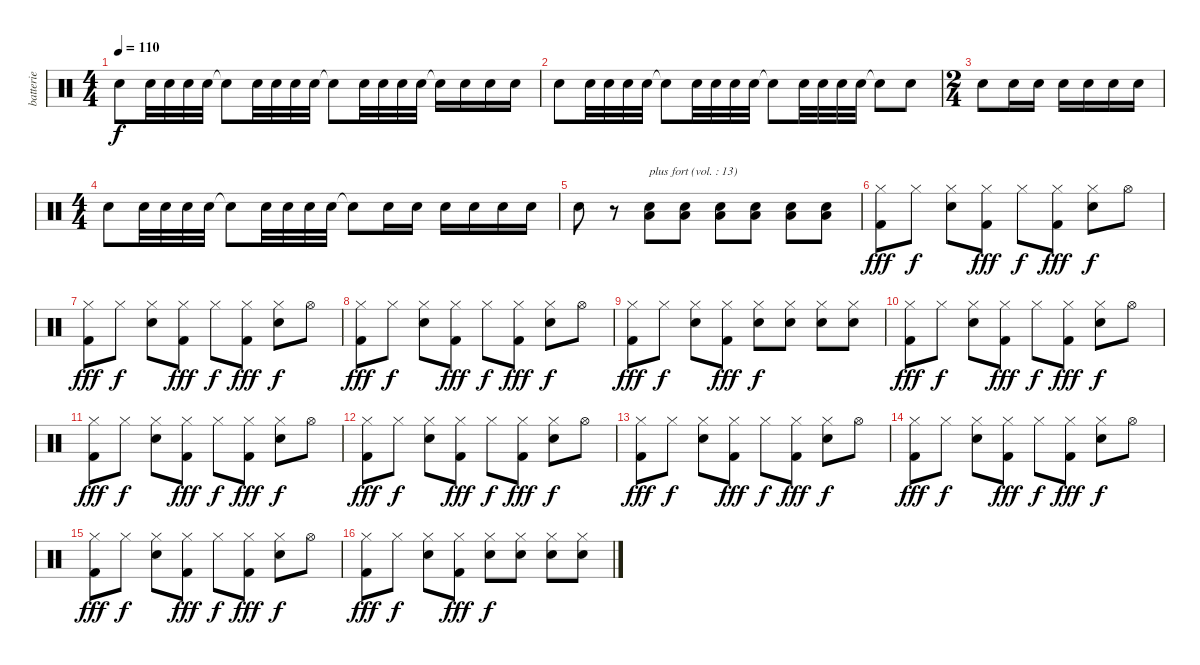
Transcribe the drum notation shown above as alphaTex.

\track ("batterie" "batterie") {instrument percussion}
\staff {score}
\articulation defaults
\ts (4 4)
\tempo 110
\clef neutral
\ks c "Electric Snare (hit)".8{dy f} "Electric Snare (hit)".32 "Electric Snare (hit)".32 "Electric Snare (hit)".32 "Electric Snare (hit)".32 "Electric Snare (hit)"{t}.8 "Electric Snare (hit)".32 "Electric Snare (hit)".32 "Electric Snare (hit)".32 "Electric Snare (hit)".32 "Snare (hit)"{t}.8 "Electric Snare (hit)".32 "Electric Snare (hit)".32 "Electric Snare (hit)".32 "Electric Snare (hit)".32 "Snare (hit)"{t}.16 "Electric Snare (hit)".16 "Electric Snare (hit)".16 "Electric Snare (hit)".16
|
"Electric Snare (hit)".8 "Electric Snare (hit)".32 "Electric Snare (hit)".32 "Electric Snare (hit)".32 "Electric Snare (hit)".32 "Electric Snare (hit)"{t}.8 "Electric Snare (hit)".32 "Electric Snare (hit)".32 "Electric Snare (hit)".32 "Electric Snare (hit)".32 "Snare (hit)"{t}.8 "Electric Snare (hit)".32 "Electric Snare (hit)".32 "Electric Snare (hit)".32 "Electric Snare (hit)".32 "Snare (hit)"{t}.8 "Electric Snare (hit)".8 |
\ts (2 4)
"Electric Snare (hit)".8 "Electric Snare (hit)".16 "Electric Snare (hit)".16 "Electric Snare (hit)".16 "Electric Snare (hit)".16 "Electric Snare (hit)".16 "Electric Snare (hit)".16 |
\ts (4 4)
"Electric Snare (hit)".8 "Electric Snare (hit)".32 "Electric Snare (hit)".32 "Electric Snare (hit)".32 "Electric Snare (hit)".32 "Snare (hit)"{t}.8 "Electric Snare (hit)".32 "Electric Snare (hit)".32 "Electric Snare (hit)".32 "Electric Snare (hit)".32 "Snare (hit)"{t}.8 "Electric Snare (hit)".16 "Electric Snare (hit)".16 "Electric Snare (hit)".16 "Electric Snare (hit)".16 "Electric Snare (hit)".16 "Electric Snare (hit)".16 |
"Electric Snare (hit)".8 r.8 ("Electric Snare (hit)" "Low Floor Tom (hit)").8{txt "plus fort (vol. : 13)" volume 13} ("Electric Snare (hit)" "Low Floor Tom (hit)").8 ("Electric Snare (hit)" "Low Floor Tom (hit)").8 ("Electric Snare (hit)" "Low Floor Tom (hit)").8 ("Electric Snare (hit)" "Low Floor Tom (hit)").8 ("Electric Snare (hit)" "Low Floor Tom (hit)").8 |
("Hi-Hat (closed)" "Kick (hit) 2").8{dy fff} "Hi-Hat (closed)".8{dy f} ("Hi-Hat (closed)" "Electric Snare (hit)").8 ("Hi-Hat (closed)" "Kick (hit) 2").8{dy fff} "Hi-Hat (closed)".8{dy f} ("Hi-Hat (closed)" "Kick (hit) 2").8{dy fff} ("Hi-Hat (closed)" "Electric Snare (hit)").8{dy f} "Hi-Hat (open)".8 |
("Hi-Hat (closed)" "Kick (hit) 2").8{dy fff} "Hi-Hat (closed)".8{dy f} ("Hi-Hat (closed)" "Electric Snare (hit)").8 ("Hi-Hat (closed)" "Kick (hit) 2").8{dy fff} "Hi-Hat (closed)".8{dy f} ("Hi-Hat (closed)" "Kick (hit) 2").8{dy fff} ("Hi-Hat (closed)" "Electric Snare (hit)").8{dy f} "Hi-Hat (open)".8 |
("Hi-Hat (closed)" "Kick (hit) 2").8{dy fff} "Hi-Hat (closed)".8{dy f} ("Hi-Hat (closed)" "Electric Snare (hit)").8 ("Hi-Hat (closed)" "Kick (hit) 2").8{dy fff} "Hi-Hat (closed)".8{dy f} ("Hi-Hat (closed)" "Kick (hit) 2").8{dy fff} ("Hi-Hat (closed)" "Electric Snare (hit)").8{dy f} "Hi-Hat (open)".8 |
("Hi-Hat (closed)" "Kick (hit) 2").8{dy fff} "Hi-Hat (closed)".8{dy f} ("Hi-Hat (closed)" "Electric Snare (hit)").8 ("Hi-Hat (closed)" "Kick (hit) 2").8{dy fff} ("Hi-Hat (closed)" "Electric Snare (hit)").8{dy f} ("Hi-Hat (closed)" "Electric Snare (hit)").8 ("Hi-Hat (closed)" "Electric Snare (hit)").8 ("Hi-Hat (closed)" "Electric Snare (hit)").8 |
("Hi-Hat (closed)" "Kick (hit) 2").8{dy fff} "Hi-Hat (closed)".8{dy f} ("Hi-Hat (closed)" "Electric Snare (hit)").8 ("Hi-Hat (closed)" "Kick (hit) 2").8{dy fff} "Hi-Hat (closed)".8{dy f} ("Hi-Hat (closed)" "Kick (hit) 2").8{dy fff} ("Hi-Hat (closed)" "Electric Snare (hit)").8{dy f} "Hi-Hat (open)".8 |
("Hi-Hat (closed)" "Kick (hit) 2").8{dy fff} "Hi-Hat (closed)".8{dy f} ("Hi-Hat (closed)" "Electric Snare (hit)").8 ("Hi-Hat (closed)" "Kick (hit) 2").8{dy fff} "Hi-Hat (closed)".8{dy f} ("Hi-Hat (closed)" "Kick (hit) 2").8{dy fff} ("Hi-Hat (closed)" "Electric Snare (hit)").8{dy f} "Hi-Hat (open)".8 |
("Hi-Hat (closed)" "Kick (hit) 2").8{dy fff} "Hi-Hat (closed)".8{dy f} ("Hi-Hat (closed)" "Electric Snare (hit)").8 ("Hi-Hat (closed)" "Kick (hit) 2").8{dy fff} "Hi-Hat (closed)".8{dy f} ("Hi-Hat (closed)" "Kick (hit) 2").8{dy fff} ("Hi-Hat (closed)" "Electric Snare (hit)").8{dy f} "Hi-Hat (open)".8 |
("Hi-Hat (closed)" "Kick (hit) 2").8{dy fff} "Hi-Hat (closed)".8{dy f} ("Hi-Hat (closed)" "Electric Snare (hit)").8 ("Hi-Hat (closed)" "Kick (hit) 2").8{dy fff} "Hi-Hat (closed)".8{dy f} ("Hi-Hat (closed)" "Kick (hit) 2").8{dy fff} ("Hi-Hat (closed)" "Electric Snare (hit)").8{dy f} "Hi-Hat (open)".8 |
("Hi-Hat (closed)" "Kick (hit) 2").8{dy fff} "Hi-Hat (closed)".8{dy f} ("Hi-Hat (closed)" "Electric Snare (hit)").8 ("Hi-Hat (closed)" "Kick (hit) 2").8{dy fff} "Hi-Hat (closed)".8{dy f} ("Hi-Hat (closed)" "Kick (hit) 2").8{dy fff} ("Hi-Hat (closed)" "Electric Snare (hit)").8{dy f} "Hi-Hat (open)".8 |
("Hi-Hat (closed)" "Kick (hit) 2").8{dy fff} "Hi-Hat (closed)".8{dy f} ("Hi-Hat (closed)" "Electric Snare (hit)").8 ("Hi-Hat (closed)" "Kick (hit) 2").8{dy fff} "Hi-Hat (closed)".8{dy f} ("Hi-Hat (closed)" "Kick (hit) 2").8{dy fff} ("Hi-Hat (closed)" "Electric Snare (hit)").8{dy f} "Hi-Hat (open)".8 |
("Hi-Hat (closed)" "Kick (hit) 2").8{dy fff} "Hi-Hat (closed)".8{dy f} ("Hi-Hat (closed)" "Electric Snare (hit)").8 ("Hi-Hat (closed)" "Kick (hit) 2").8{dy fff} ("Hi-Hat (closed)" "Electric Snare (hit)").8{dy f} ("Hi-Hat (closed)" "Electric Snare (hit)").8 ("Hi-Hat (closed)" "Electric Snare (hit)").8 ("Hi-Hat (closed)" "Electric Snare (hit)").8
